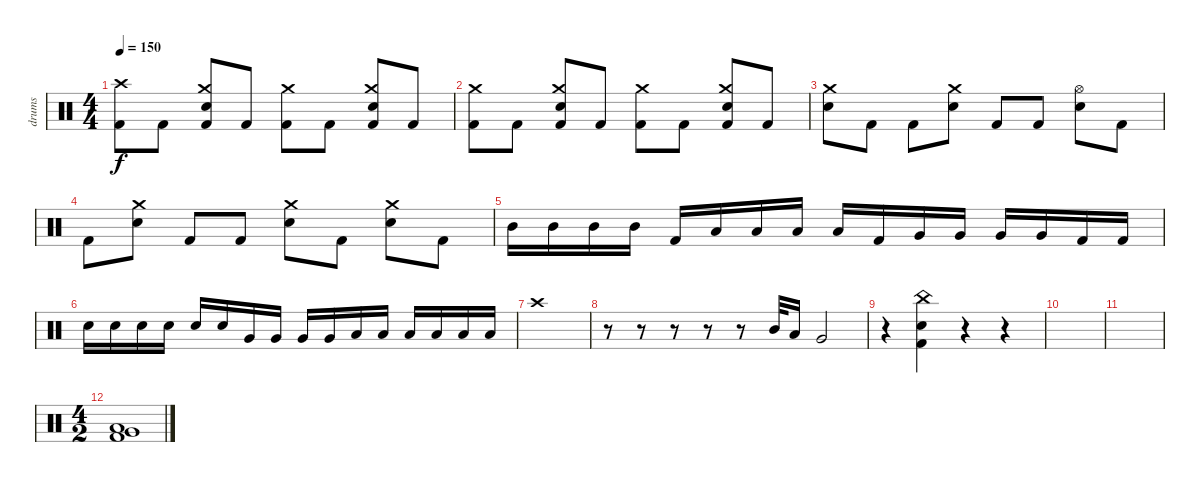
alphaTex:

\track ("drums" "drums") {instrument percussion}
\staff {score}
\articulation defaults
\ts (4 4)
\tempo 150
\clef neutral
\ks c
("Crash high (hit)" "Kick (hit) 2").8{dy f} "Kick (hit) 2".8 ("Crash medium (hit)" "Snare (hit) 2" "Kick (hit) 2").8 "Kick (hit) 2".8 ("Crash medium (hit)" "Kick (hit) 2").8 "Kick (hit) 2".8 ("Crash medium (hit)" "Snare (hit) 2" "Kick (hit) 2").8 "Kick (hit) 2".8 |
("Crash medium (hit)" "Kick (hit) 2").8 "Kick (hit) 2".8 ("Crash medium (hit)" "Snare (hit) 2" "Kick (hit) 2").8 "Kick (hit) 2".8 ("Crash medium (hit)" "Kick (hit) 2").8 "Kick (hit) 2".8 ("Crash medium (hit)" "Snare (hit) 2" "Kick (hit) 2").8 "Kick (hit) 2".8 |
("Crash medium (hit)" "Snare (hit) 2").8 "Kick (hit) 2".8 "Kick (hit) 2".8 ("Crash medium (hit)" "Snare (hit) 2").8 "Kick (hit) 2".8 "Kick (hit) 2".8 ("Hi-Hat (open)" "Snare (hit) 2").8 "Kick (hit) 2".8 |
"Kick (hit) 2".8 ("Crash medium (hit)" "Snare (hit) 2").8 "Kick (hit) 2".8 "Kick (hit) 2".8 ("Crash medium (hit)" "Snare (hit) 2").8 "Kick (hit) 2".8 ("Crash medium (hit)" "Snare (hit) 2").8 "Kick (hit) 2".8 |
"Mid Tom (hit)".16 "Mid Tom (hit)".16 "Mid Tom (hit)".16 "Mid Tom (hit)".16 "Kick (hit) 2".16 "Low Tom (hit)".16 "Low Tom (hit)".16 "Low Tom (hit)".16 "Low Tom (hit)".16 "Kick (hit) 2".16 "Very Low Tom (hit)".16 "Very Low Tom (hit)".16 "Very Low Tom (hit)".16 "Very Low Tom (hit)".16 "Kick (hit) 2".16 "Kick (hit) 2".16 |
"Snare (hit) 2".16 "Snare (hit) 2".16 "Snare (hit) 2".16 "Snare (hit) 2".16 "Snare (hit) 2".16 "Snare (hit) 2".16 "Very Low Tom (hit)".16 "Very Low Tom (hit)".16 "Very Low Tom (hit)".16 "Very Low Tom (hit)".16 "Low Tom (hit)".16 "Low Tom (hit)".16 "Low Tom (hit)".16 "Low Tom (hit)".16 "Low Tom (hit)".16 "Low Tom (hit)".16 |
"Crash high (hit)".1 |
r.8 r.8 r.8 r.8 r.8 "Mid Tom (hit)".32 "Low Tom (hit)".16 "Very Low Tom (hit)".2 |
r.4 ("China (hit)" "Snare (hit) 2" "Kick (hit) 2").4 r.4 r.4 |
|
|
\ts (4 2)
("Low Tom (hit)" "Very Low Tom (hit)" "Kick (hit) 2").1
